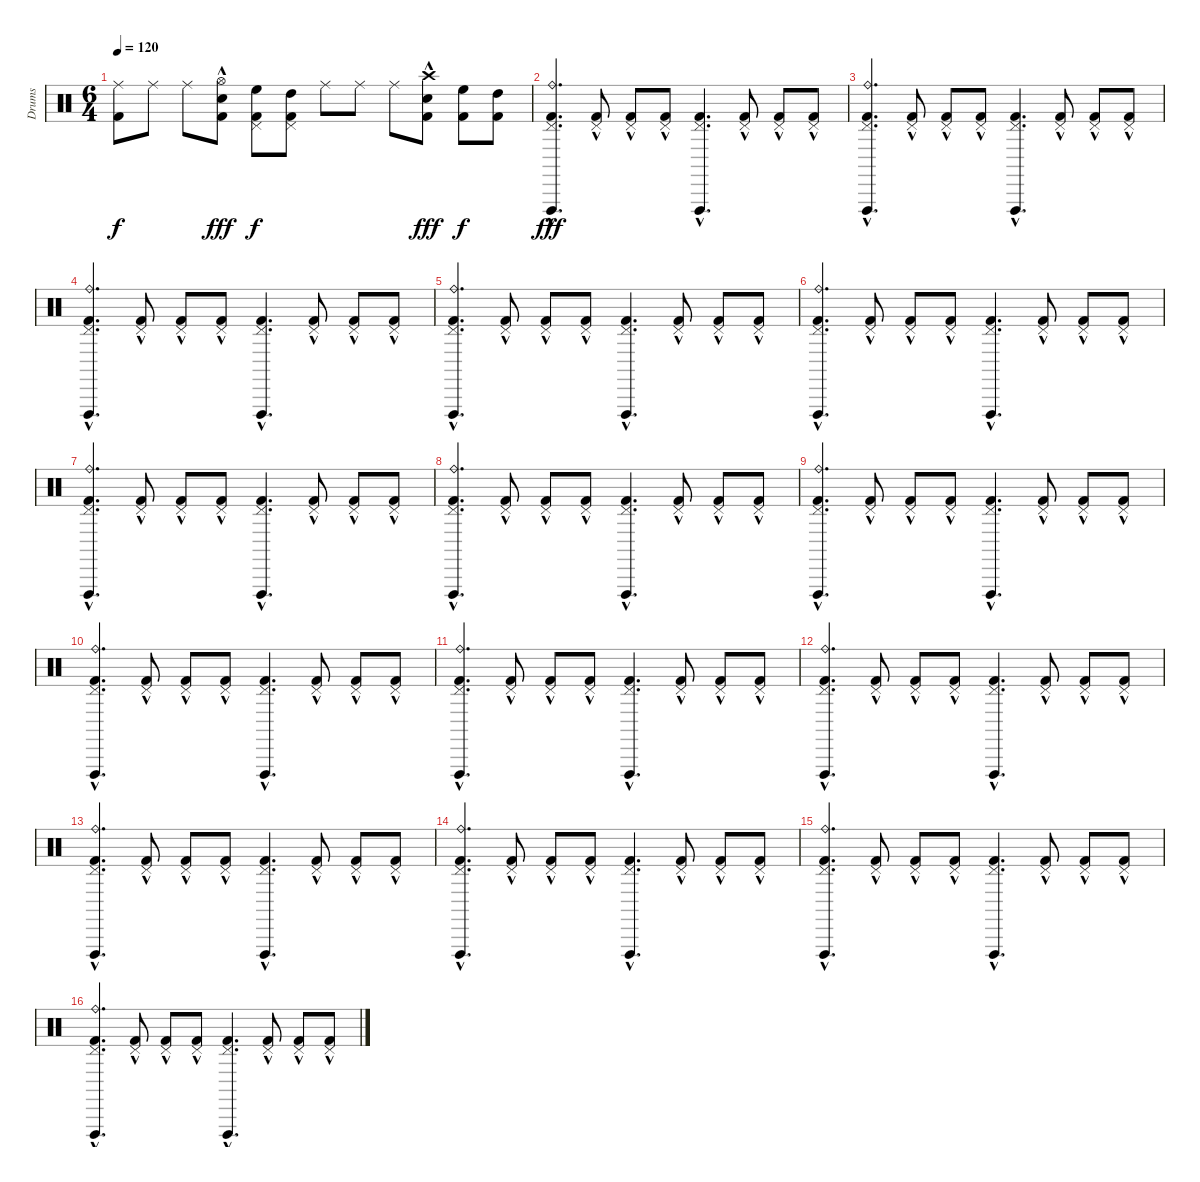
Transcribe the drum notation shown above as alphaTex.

\track ("Drums" "Drums") {instrument percussion}
\staff {score}
\articulation defaults
\ts (6 4)
\tempo 120
\clef neutral
\ks c
("Ride (middle)" "Kick (hit) 2").8{dy f} "Ride (middle)".8 "Ride (middle)".8 ("Hi-Hat (open)" "Snare (hit) 2"{hac} "Kick (hit) 2").8{dy fff} ("Pedal Hi-Hat (hit)" "High Floor Tom (hit)" "Kick (hit) 2").8{dy f} ("Pedal Hi-Hat (hit)" "High Tom (hit)" "Kick (hit) 2").8 "Ride (middle)".8 "Ride (middle)".8 "Ride (middle)".8 ("Crash high (hit)" "Snare (hit) 2"{hac} "Kick (hit) 2").8{dy fff} ("High Floor Tom (hit)" "Kick (hit) 2").8{dy f} ("High Tom (hit)" "Kick (hit) 2").8 |
("Pedal Hi-Hat (hit)" "Ride (bell)" "Vibraslap (hit)"{hac} "Kick (hit) 2"{hac}).4{d dy fff} ("Pedal Hi-Hat (hit)" "Kick (hit) 2"{hac}).8 ("Pedal Hi-Hat (hit)" "Kick (hit) 2"{hac}).8 ("Pedal Hi-Hat (hit)" "Kick (hit) 2"{hac}).8 ("Pedal Hi-Hat (hit)" "Vibraslap (hit)"{hac} "Kick (hit) 2"{hac}).4{d} ("Pedal Hi-Hat (hit)" "Kick (hit) 2"{hac}).8 ("Pedal Hi-Hat (hit)" "Kick (hit) 2"{hac}).8 ("Pedal Hi-Hat (hit)" "Kick (hit) 2"{hac}).8 |
("Pedal Hi-Hat (hit)" "Ride (bell)" "Vibraslap (hit)"{hac} "Kick (hit) 2"{hac}).4{d} ("Pedal Hi-Hat (hit)" "Kick (hit) 2"{hac}).8 ("Pedal Hi-Hat (hit)" "Kick (hit) 2"{hac}).8 ("Pedal Hi-Hat (hit)" "Kick (hit) 2"{hac}).8 ("Pedal Hi-Hat (hit)" "Vibraslap (hit)"{hac} "Kick (hit) 2"{hac}).4{d} ("Pedal Hi-Hat (hit)" "Kick (hit) 2"{hac}).8 ("Pedal Hi-Hat (hit)" "Kick (hit) 2"{hac}).8 ("Pedal Hi-Hat (hit)" "Kick (hit) 2"{hac}).8 |
("Pedal Hi-Hat (hit)" "Ride (bell)" "Vibraslap (hit)"{hac} "Kick (hit) 2"{hac}).4{d} ("Pedal Hi-Hat (hit)" "Kick (hit) 2"{hac}).8 ("Pedal Hi-Hat (hit)" "Kick (hit) 2"{hac}).8 ("Pedal Hi-Hat (hit)" "Kick (hit) 2"{hac}).8 ("Pedal Hi-Hat (hit)" "Vibraslap (hit)"{hac} "Kick (hit) 2"{hac}).4{d} ("Pedal Hi-Hat (hit)" "Kick (hit) 2"{hac}).8 ("Pedal Hi-Hat (hit)" "Kick (hit) 2"{hac}).8 ("Pedal Hi-Hat (hit)" "Kick (hit) 2"{hac}).8 |
("Pedal Hi-Hat (hit)" "Ride (bell)" "Vibraslap (hit)"{hac} "Kick (hit) 2"{hac}).4{d} ("Pedal Hi-Hat (hit)" "Kick (hit) 2"{hac}).8 ("Pedal Hi-Hat (hit)" "Kick (hit) 2"{hac}).8 ("Pedal Hi-Hat (hit)" "Kick (hit) 2"{hac}).8 ("Pedal Hi-Hat (hit)" "Vibraslap (hit)"{hac} "Kick (hit) 2"{hac}).4{d} ("Pedal Hi-Hat (hit)" "Kick (hit) 2"{hac}).8 ("Pedal Hi-Hat (hit)" "Kick (hit) 2"{hac}).8 ("Pedal Hi-Hat (hit)" "Kick (hit) 2"{hac}).8 |
("Pedal Hi-Hat (hit)" "Ride (bell)" "Vibraslap (hit)"{hac} "Kick (hit) 2"{hac}).4{d} ("Pedal Hi-Hat (hit)" "Kick (hit) 2"{hac}).8 ("Pedal Hi-Hat (hit)" "Kick (hit) 2"{hac}).8 ("Pedal Hi-Hat (hit)" "Kick (hit) 2"{hac}).8 ("Pedal Hi-Hat (hit)" "Vibraslap (hit)"{hac} "Kick (hit) 2"{hac}).4{d} ("Pedal Hi-Hat (hit)" "Kick (hit) 2"{hac}).8 ("Pedal Hi-Hat (hit)" "Kick (hit) 2"{hac}).8 ("Pedal Hi-Hat (hit)" "Kick (hit) 2"{hac}).8 |
("Pedal Hi-Hat (hit)" "Ride (bell)" "Vibraslap (hit)"{hac} "Kick (hit) 2"{hac}).4{d} ("Pedal Hi-Hat (hit)" "Kick (hit) 2"{hac}).8 ("Pedal Hi-Hat (hit)" "Kick (hit) 2"{hac}).8 ("Pedal Hi-Hat (hit)" "Kick (hit) 2"{hac}).8 ("Pedal Hi-Hat (hit)" "Vibraslap (hit)"{hac} "Kick (hit) 2"{hac}).4{d} ("Pedal Hi-Hat (hit)" "Kick (hit) 2"{hac}).8 ("Pedal Hi-Hat (hit)" "Kick (hit) 2"{hac}).8 ("Pedal Hi-Hat (hit)" "Kick (hit) 2"{hac}).8 |
("Pedal Hi-Hat (hit)" "Ride (bell)" "Vibraslap (hit)"{hac} "Kick (hit) 2"{hac}).4{d} ("Pedal Hi-Hat (hit)" "Kick (hit) 2"{hac}).8 ("Pedal Hi-Hat (hit)" "Kick (hit) 2"{hac}).8 ("Pedal Hi-Hat (hit)" "Kick (hit) 2"{hac}).8 ("Pedal Hi-Hat (hit)" "Vibraslap (hit)"{hac} "Kick (hit) 2"{hac}).4{d} ("Pedal Hi-Hat (hit)" "Kick (hit) 2"{hac}).8 ("Pedal Hi-Hat (hit)" "Kick (hit) 2"{hac}).8 ("Pedal Hi-Hat (hit)" "Kick (hit) 2"{hac}).8 |
("Pedal Hi-Hat (hit)" "Ride (bell)" "Vibraslap (hit)"{hac} "Kick (hit) 2"{hac}).4{d} ("Pedal Hi-Hat (hit)" "Kick (hit) 2"{hac}).8 ("Pedal Hi-Hat (hit)" "Kick (hit) 2"{hac}).8 ("Pedal Hi-Hat (hit)" "Kick (hit) 2"{hac}).8 ("Pedal Hi-Hat (hit)" "Vibraslap (hit)"{hac} "Kick (hit) 2"{hac}).4{d} ("Pedal Hi-Hat (hit)" "Kick (hit) 2"{hac}).8 ("Pedal Hi-Hat (hit)" "Kick (hit) 2"{hac}).8 ("Pedal Hi-Hat (hit)" "Kick (hit) 2"{hac}).8 |
("Pedal Hi-Hat (hit)" "Ride (bell)" "Vibraslap (hit)"{hac} "Kick (hit) 2"{hac}).4{d} ("Pedal Hi-Hat (hit)" "Kick (hit) 2"{hac}).8 ("Pedal Hi-Hat (hit)" "Kick (hit) 2"{hac}).8 ("Pedal Hi-Hat (hit)" "Kick (hit) 2"{hac}).8 ("Pedal Hi-Hat (hit)" "Vibraslap (hit)"{hac} "Kick (hit) 2"{hac}).4{d} ("Pedal Hi-Hat (hit)" "Kick (hit) 2"{hac}).8 ("Pedal Hi-Hat (hit)" "Kick (hit) 2"{hac}).8 ("Pedal Hi-Hat (hit)" "Kick (hit) 2"{hac}).8 |
("Pedal Hi-Hat (hit)" "Ride (bell)" "Vibraslap (hit)"{hac} "Kick (hit) 2"{hac}).4{d} ("Pedal Hi-Hat (hit)" "Kick (hit) 2"{hac}).8 ("Pedal Hi-Hat (hit)" "Kick (hit) 2"{hac}).8 ("Pedal Hi-Hat (hit)" "Kick (hit) 2"{hac}).8 ("Pedal Hi-Hat (hit)" "Vibraslap (hit)"{hac} "Kick (hit) 2"{hac}).4{d} ("Pedal Hi-Hat (hit)" "Kick (hit) 2"{hac}).8 ("Pedal Hi-Hat (hit)" "Kick (hit) 2"{hac}).8 ("Pedal Hi-Hat (hit)" "Kick (hit) 2"{hac}).8 |
("Pedal Hi-Hat (hit)" "Ride (bell)" "Vibraslap (hit)"{hac} "Kick (hit) 2"{hac}).4{d} ("Pedal Hi-Hat (hit)" "Kick (hit) 2"{hac}).8 ("Pedal Hi-Hat (hit)" "Kick (hit) 2"{hac}).8 ("Pedal Hi-Hat (hit)" "Kick (hit) 2"{hac}).8 ("Pedal Hi-Hat (hit)" "Vibraslap (hit)"{hac} "Kick (hit) 2"{hac}).4{d} ("Pedal Hi-Hat (hit)" "Kick (hit) 2"{hac}).8 ("Pedal Hi-Hat (hit)" "Kick (hit) 2"{hac}).8 ("Pedal Hi-Hat (hit)" "Kick (hit) 2"{hac}).8 |
("Pedal Hi-Hat (hit)" "Ride (bell)" "Vibraslap (hit)"{hac} "Kick (hit) 2"{hac}).4{d} ("Pedal Hi-Hat (hit)" "Kick (hit) 2"{hac}).8 ("Pedal Hi-Hat (hit)" "Kick (hit) 2"{hac}).8 ("Pedal Hi-Hat (hit)" "Kick (hit) 2"{hac}).8 ("Pedal Hi-Hat (hit)" "Vibraslap (hit)"{hac} "Kick (hit) 2"{hac}).4{d} ("Pedal Hi-Hat (hit)" "Kick (hit) 2"{hac}).8 ("Pedal Hi-Hat (hit)" "Kick (hit) 2"{hac}).8 ("Pedal Hi-Hat (hit)" "Kick (hit) 2"{hac}).8 |
("Pedal Hi-Hat (hit)" "Ride (bell)" "Vibraslap (hit)"{hac} "Kick (hit) 2"{hac}).4{d} ("Pedal Hi-Hat (hit)" "Kick (hit) 2"{hac}).8 ("Pedal Hi-Hat (hit)" "Kick (hit) 2"{hac}).8 ("Pedal Hi-Hat (hit)" "Kick (hit) 2"{hac}).8 ("Pedal Hi-Hat (hit)" "Vibraslap (hit)"{hac} "Kick (hit) 2"{hac}).4{d} ("Pedal Hi-Hat (hit)" "Kick (hit) 2"{hac}).8 ("Pedal Hi-Hat (hit)" "Kick (hit) 2"{hac}).8 ("Pedal Hi-Hat (hit)" "Kick (hit) 2"{hac}).8 |
("Pedal Hi-Hat (hit)" "Ride (bell)" "Vibraslap (hit)"{hac} "Kick (hit) 2"{hac}).4{d} ("Pedal Hi-Hat (hit)" "Kick (hit) 2"{hac}).8 ("Pedal Hi-Hat (hit)" "Kick (hit) 2"{hac}).8 ("Pedal Hi-Hat (hit)" "Kick (hit) 2"{hac}).8 ("Pedal Hi-Hat (hit)" "Vibraslap (hit)"{hac} "Kick (hit) 2"{hac}).4{d} ("Pedal Hi-Hat (hit)" "Kick (hit) 2"{hac}).8 ("Pedal Hi-Hat (hit)" "Kick (hit) 2"{hac}).8 ("Pedal Hi-Hat (hit)" "Kick (hit) 2"{hac}).8 |
("Pedal Hi-Hat (hit)" "Ride (bell)" "Vibraslap (hit)"{hac} "Kick (hit) 2"{hac}).4{d} ("Pedal Hi-Hat (hit)" "Kick (hit) 2"{hac}).8 ("Pedal Hi-Hat (hit)" "Kick (hit) 2"{hac}).8 ("Pedal Hi-Hat (hit)" "Kick (hit) 2"{hac}).8 ("Pedal Hi-Hat (hit)" "Vibraslap (hit)"{hac} "Kick (hit) 2"{hac}).4{d} ("Pedal Hi-Hat (hit)" "Kick (hit) 2"{hac}).8 ("Pedal Hi-Hat (hit)" "Kick (hit) 2"{hac}).8 ("Pedal Hi-Hat (hit)" "Kick (hit) 2"{hac}).8
